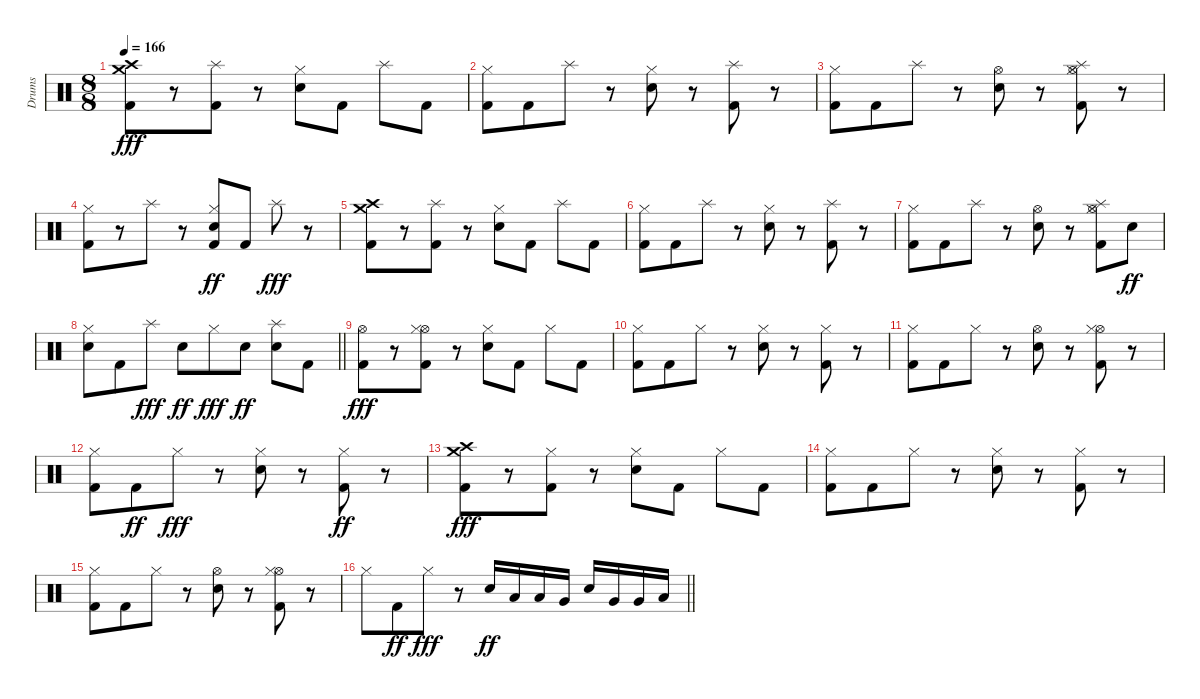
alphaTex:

\track ("Drums" "Drums") {instrument percussion}
\staff {score}
\articulation defaults
\ts (8 8)
\section ("" "")
\tempo 166
\clef neutral
\ks c
("Crash high (hit)" "Crash medium (hit)" "Kick (hit) 2").8{dy fff} r.8 ("Splash (hit)" "Kick (hit) 2").8 r.8 ("Hi-Hat (closed)" "Electric Snare (hit)").8 "Kick (hit) 2".8 "Splash (hit)".8 "Kick (hit) 2".8 |
("Hi-Hat (closed)" "Kick (hit) 2").8 "Kick (hit) 2".8 "Splash (hit)".8 r.8 ("Hi-Hat (closed)" "Electric Snare (hit)").8 r.8 ("Splash (hit)" "Kick (hit) 2").8 r.8 |
("Hi-Hat (closed)" "Kick (hit) 2").8 "Kick (hit) 2".8 "Splash (hit)".8 r.8 ("Hi-Hat (open)" "Electric Snare (hit)").8 r.8 ("Hi-Hat (open)" "Hi-Hat (closed)" "Splash (hit)" "Kick (hit) 2").8 r.8 |
("Hi-Hat (closed)" "Kick (hit) 2").8 r.8 "Splash (hit)".8 r.8 ("Hi-Hat (closed)" "Electric Snare (hit)" "Kick (hit) 2").8{dy ff} "Kick (hit) 2".8 "Splash (hit)".8{dy fff} r.8 |
("Crash high (hit)" "Crash medium (hit)" "Kick (hit) 2").8 r.8 ("Splash (hit)" "Kick (hit) 2").8 r.8 ("Hi-Hat (closed)" "Electric Snare (hit)").8 "Kick (hit) 2".8 "Splash (hit)".8 "Kick (hit) 2".8 |
("Hi-Hat (closed)" "Kick (hit) 2").8 "Kick (hit) 2".8 "Splash (hit)".8 r.8 ("Hi-Hat (closed)" "Electric Snare (hit)").8 r.8 ("Splash (hit)" "Kick (hit) 2").8 r.8 |
("Hi-Hat (closed)" "Kick (hit) 2").8 "Kick (hit) 2".8 "Splash (hit)".8 r.8 ("Hi-Hat (open)" "Electric Snare (hit)").8 r.8 ("Hi-Hat (open)" "Hi-Hat (closed)" "Splash (hit)" "Kick (hit) 2").8 "Electric Snare (hit)".8{dy ff} |
\barLineRight lightlight
("Hi-Hat (closed)" "Electric Snare (hit)").8 "Kick (hit) 2".8 "Splash (hit)".8{dy fff} "Electric Snare (hit)".8{dy ff} "Hi-Hat (closed)".8{dy fff} "Electric Snare (hit)".8{dy ff} ("Splash (hit)" "Electric Snare (hit)").8 "Kick (hit) 2".8 |
\section ("" "")
("Hi-Hat (open)" "Kick (hit) 2").8{dy fff} r.8 ("Hi-Hat (open)" "Hi-Hat (closed)" "Kick (hit) 2").8 r.8 ("Hi-Hat (closed)" "Electric Snare (hit)").8 "Kick (hit) 2".8 "Hi-Hat (closed)".8 "Kick (hit) 2".8 |
("Hi-Hat (closed)" "Kick (hit) 2").8 "Kick (hit) 2".8 "Hi-Hat (closed)".8 r.8 ("Hi-Hat (closed)" "Electric Snare (hit)").8 r.8 ("Hi-Hat (closed)" "Kick (hit) 2").8 r.8 |
("Hi-Hat (closed)" "Kick (hit) 2").8 "Kick (hit) 2".8 "Hi-Hat (closed)".8 r.8 ("Hi-Hat (open)" "Electric Snare (hit)").8 r.8 ("Hi-Hat (open)" "Hi-Hat (closed)" "Kick (hit) 2").8 r.8 |
("Hi-Hat (closed)" "Kick (hit) 2").8 "Kick (hit) 2".8{dy ff} "Hi-Hat (closed)".8{dy fff} r.8 ("Hi-Hat (closed)" "Electric Snare (hit)").8 r.8 ("Hi-Hat (closed)" "Kick (hit) 2").8{dy ff} r.8 |
("Crash high (hit)" "Crash medium (hit)" "Kick (hit) 2").8{dy fff} r.8 ("Hi-Hat (closed)" "Kick (hit) 2").8 r.8 ("Hi-Hat (closed)" "Electric Snare (hit)").8 "Kick (hit) 2".8 "Hi-Hat (closed)".8 "Kick (hit) 2".8 |
("Hi-Hat (closed)" "Kick (hit) 2").8 "Kick (hit) 2".8 "Hi-Hat (closed)".8 r.8 ("Hi-Hat (closed)" "Electric Snare (hit)").8 r.8 ("Hi-Hat (closed)" "Kick (hit) 2").8 r.8 |
("Hi-Hat (closed)" "Kick (hit) 2").8 "Kick (hit) 2".8 "Hi-Hat (closed)".8 r.8 ("Hi-Hat (open)" "Electric Snare (hit)").8 r.8 ("Hi-Hat (open)" "Hi-Hat (closed)" "Kick (hit) 2").8 r.8 |
\barLineRight lightlight "Hi-Hat (closed)".8 "Kick (hit) 2".8{dy ff} "Hi-Hat (closed)".8{dy fff}
r.8 "Electric Snare (hit)".16{dy ff} "Low Tom (hit)".16 "Low Tom (hit)".16 "Very Low Tom (hit)".16 "Electric Snare (hit)".16 "Very Low Tom (hit)".16 "Very Low Tom (hit)".16 "Low Floor Tom (hit)".16
